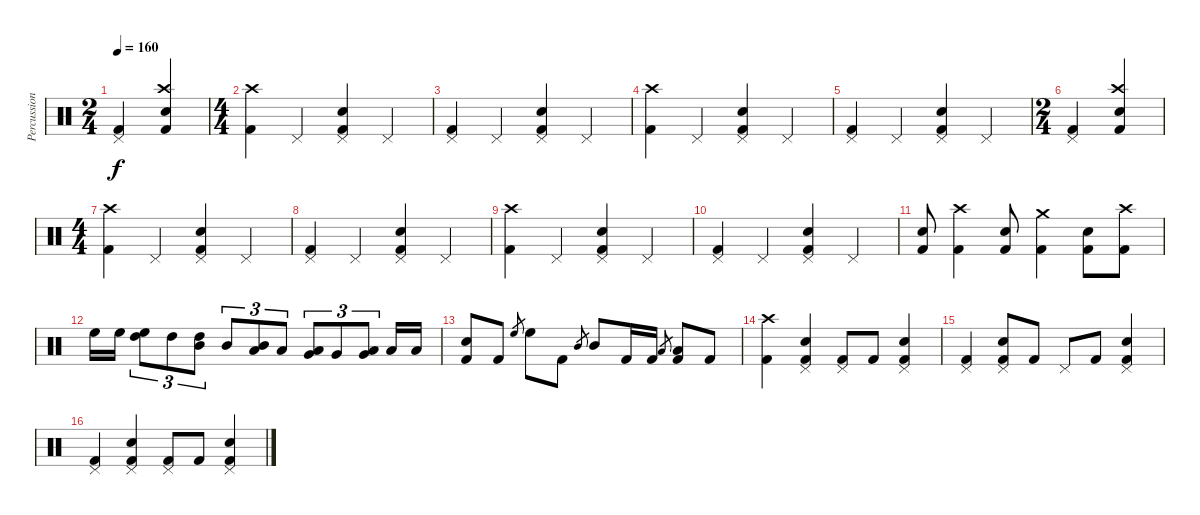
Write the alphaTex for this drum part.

\track ("Percussion" "Percussion") {instrument percussion}
\staff {score}
\articulation defaults
\ts (2 4)
\tempo 160
\clef neutral
\ks c
("Pedal Hi-Hat (hit)" "Kick (hit) 2").4{dy f} ("Crash high (hit)" "Snare (hit) 2" "Kick (hit) 2").4 |
\ts (4 4)
("Crash high (hit)" "Kick (hit) 2").4 "Pedal Hi-Hat (hit)".4 ("Pedal Hi-Hat (hit)" "Snare (hit) 2" "Kick (hit) 2").4 "Pedal Hi-Hat (hit)".4 |
("Pedal Hi-Hat (hit)" "Kick (hit) 2").4 "Pedal Hi-Hat (hit)".4 ("Pedal Hi-Hat (hit)" "Snare (hit) 2" "Kick (hit) 2").4 "Pedal Hi-Hat (hit)".4 |
("Crash high (hit)" "Kick (hit) 2").4 "Pedal Hi-Hat (hit)".4 ("Pedal Hi-Hat (hit)" "Snare (hit) 2" "Kick (hit) 2").4 "Pedal Hi-Hat (hit)".4 |
("Pedal Hi-Hat (hit)" "Kick (hit) 2").4 "Pedal Hi-Hat (hit)".4 ("Pedal Hi-Hat (hit)" "Snare (hit) 2" "Kick (hit) 2").4 "Pedal Hi-Hat (hit)".4 |
\ts (2 4)
("Pedal Hi-Hat (hit)" "Kick (hit) 2").4 ("Crash high (hit)" "Snare (hit) 2" "Kick (hit) 2").4 |
\ts (4 4)
("Crash high (hit)" "Kick (hit) 2").4 "Pedal Hi-Hat (hit)".4 ("Pedal Hi-Hat (hit)" "Snare (hit) 2" "Kick (hit) 2").4 "Pedal Hi-Hat (hit)".4 |
("Pedal Hi-Hat (hit)" "Kick (hit) 2").4 "Pedal Hi-Hat (hit)".4 ("Pedal Hi-Hat (hit)" "Snare (hit) 2" "Kick (hit) 2").4 "Pedal Hi-Hat (hit)".4 |
("Crash high (hit)" "Kick (hit) 2").4 "Pedal Hi-Hat (hit)".4 ("Pedal Hi-Hat (hit)" "Snare (hit) 2" "Kick (hit) 2").4 "Pedal Hi-Hat (hit)".4 |
("Pedal Hi-Hat (hit)" "Kick (hit) 2").4 "Pedal Hi-Hat (hit)".4 ("Pedal Hi-Hat (hit)" "Snare (hit) 2" "Kick (hit) 2").4 "Pedal Hi-Hat (hit)".4 |
("Snare (hit) 2" "Kick (hit) 2").8 ("Crash high (hit)" "Kick (hit) 2").4 ("Snare (hit) 2" "Kick (hit) 2").8 ("Crash medium (hit)" "Kick (hit) 2").4 ("Snare (hit) 2" "Kick (hit) 2").8 ("Crash high (hit)" "Kick (hit) 2").8 |
"High Floor Tom (hit)".16 "High Floor Tom (hit)".16 ("High Floor Tom (hit)" "High Tom (hit)").8{tu (3 2)} "High Tom (hit)".8{tu (3 2)} ("High Tom (hit)" "Mid Tom (hit)").8{tu (3 2)} "Mid Tom (hit)".8{tu (3 2)} ("Mid Tom (hit)" "Low Tom (hit)").8{tu (3 2)} "Low Tom (hit)".8{tu (3 2)} ("Low Tom (hit)" "Very Low Tom (hit)").8{tu (3 2)} "Very Low Tom (hit)".8{tu (3 2)} ("Very Low Tom (hit)" "Low Floor Tom (hit)").8{tu (3 2)} "Low Floor Tom (hit)".16 "Low Floor Tom (hit)".16 |
("Snare (hit) 2" "Kick (hit) 2").8 "Kick (hit) 2".8 "High Floor Tom (hit)".8{gr} "High Floor Tom (hit)".8 "Kick (hit) 2".8 "Mid Tom (hit)".8{gr} "Mid Tom (hit)".8 "Kick (hit) 2".16 "Kick (hit) 2".16 "Low Tom (hit)".8{gr} ("Low Tom (hit)" "Kick (hit) 2").8 "Kick (hit) 2".8 |
("Crash high (hit)" "Kick (hit) 2").4 ("Pedal Hi-Hat (hit)" "Snare (hit) 2" "Kick (hit) 2").4 ("Pedal Hi-Hat (hit)" "Kick (hit) 2").8 "Kick (hit) 2".8 ("Pedal Hi-Hat (hit)" "Snare (hit) 2" "Kick (hit) 2").4 |
("Pedal Hi-Hat (hit)" "Kick (hit) 2").4 ("Pedal Hi-Hat (hit)" "Snare (hit) 2" "Kick (hit) 2").8 "Kick (hit) 2".8 "Pedal Hi-Hat (hit)".8 "Kick (hit) 2".8 ("Pedal Hi-Hat (hit)" "Snare (hit) 2" "Kick (hit) 2").4 |
("Pedal Hi-Hat (hit)" "Kick (hit) 2").4 ("Pedal Hi-Hat (hit)" "Snare (hit) 2" "Kick (hit) 2").4 ("Pedal Hi-Hat (hit)" "Kick (hit) 2").8 "Kick (hit) 2".8 ("Pedal Hi-Hat (hit)" "Snare (hit) 2" "Kick (hit) 2").4
